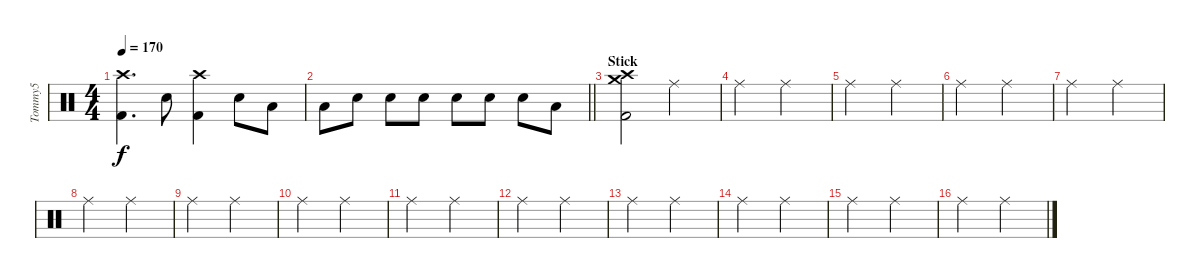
\track ("Tommy5" "Tommy5") {instrument percussion}
\staff {score}
\articulation defaults
\ts (4 4)
\tempo 170
\clef neutral
\ks c
("Kick (hit) 2" "Crash high (hit)").4{d dy f} "Electric Snare (hit)".8 ("Kick (hit) 2" "Crash high (hit)").4 "Electric Snare (hit)".8 "Low Tom (hit)".8 |
\barLineRight lightlight "Low Tom (hit)".8 "Electric Snare (hit)".8 "Electric Snare (hit)".8 "Snare (hit) 2".8 "Snare (hit) 2".8 "Electric Snare (hit)".8 "Electric Snare (hit)".8 "Low Tom (hit)".8
|
\section ("" "Stick")
("Kick (hit) 2" "Crash high (hit)" "Crash medium (hit)").2 "Ride (middle)".2 |
"Ride (middle)".2 "Ride (middle)".2 |
"Ride (middle)".2 "Ride (middle)".2 |
"Ride (middle)".2 "Ride (middle)".2 |
"Ride (middle)".2 "Ride (middle)".2 |
"Ride (middle)".2 "Ride (middle)".2 |
"Ride (middle)".2 "Ride (middle)".2 |
"Ride (middle)".2 "Ride (middle)".2 |
"Ride (middle)".2 "Ride (middle)".2 |
"Ride (middle)".2 "Ride (middle)".2 |
"Ride (middle)".2 "Ride (middle)".2 |
"Ride (middle)".2 "Ride (middle)".2 |
"Ride (middle)".2 "Ride (middle)".2 |
"Ride (middle)".2 "Ride (middle)".2
